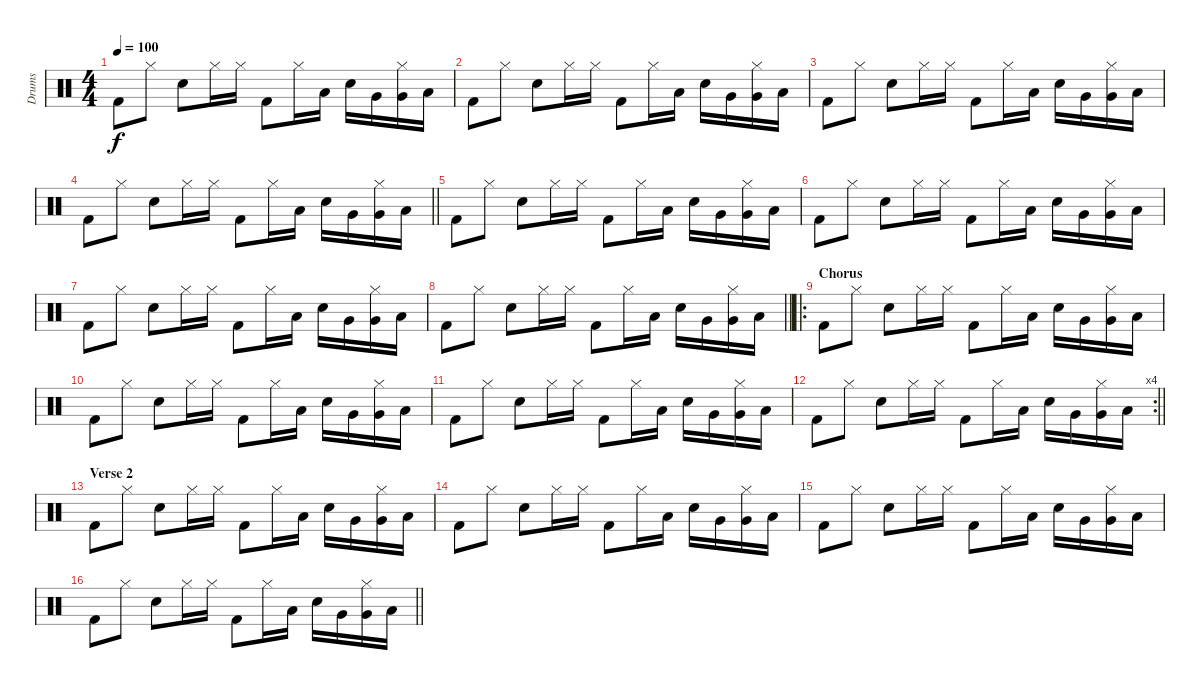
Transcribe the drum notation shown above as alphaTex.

\track ("Drums" "Drums") {instrument percussion}
\staff {score}
\articulation defaults
\ts (4 4)
\tempo 100
\clef neutral
\ks c "Kick (hit) 2".8{dy f} "Hi-Hat (closed)".8 "Snare (hit) 2".8 "Hi-Hat (closed)".16 "Hi-Hat (closed)".16 "Kick (hit) 2".8 "Hi-Hat (closed)".16 "Low Tom (hit)".16 "Snare (hit) 2".16 "Very Low Tom (hit)".16
("Hi-Hat (closed)" "Very Low Tom (hit)").16 "Low Floor Tom (hit)".16 |
"Kick (hit) 2".8 "Hi-Hat (closed)".8 "Snare (hit) 2".8 "Hi-Hat (closed)".16 "Hi-Hat (closed)".16 "Kick (hit) 2".8 "Hi-Hat (closed)".16 "Low Tom (hit)".16 "Snare (hit) 2".16 "Very Low Tom (hit)".16 ("Hi-Hat (closed)" "Very Low Tom (hit)").16 "Low Floor Tom (hit)".16 |
"Kick (hit) 2".8 "Hi-Hat (closed)".8 "Snare (hit) 2".8 "Hi-Hat (closed)".16 "Hi-Hat (closed)".16 "Kick (hit) 2".8 "Hi-Hat (closed)".16 "Low Tom (hit)".16 "Snare (hit) 2".16 "Very Low Tom (hit)".16 ("Hi-Hat (closed)" "Very Low Tom (hit)").16 "Low Floor Tom (hit)".16 |
\barLineRight lightlight "Kick (hit) 2".8 "Hi-Hat (closed)".8 "Snare (hit) 2".8 "Hi-Hat (closed)".16 "Hi-Hat (closed)".16 "Kick (hit) 2".8 "Hi-Hat (closed)".16 "Low Tom (hit)".16 "Snare (hit) 2".16 "Very Low Tom (hit)".16
("Hi-Hat (closed)" "Very Low Tom (hit)").16 "Low Floor Tom (hit)".16 |
"Kick (hit) 2".8 "Hi-Hat (closed)".8 "Snare (hit) 2".8 "Hi-Hat (closed)".16 "Hi-Hat (closed)".16 "Kick (hit) 2".8 "Hi-Hat (closed)".16 "Low Tom (hit)".16 "Snare (hit) 2".16 "Very Low Tom (hit)".16 ("Hi-Hat (closed)" "Very Low Tom (hit)").16 "Low Floor Tom (hit)".16 |
"Kick (hit) 2".8 "Hi-Hat (closed)".8 "Snare (hit) 2".8 "Hi-Hat (closed)".16 "Hi-Hat (closed)".16 "Kick (hit) 2".8 "Hi-Hat (closed)".16 "Low Tom (hit)".16 "Snare (hit) 2".16 "Very Low Tom (hit)".16 ("Hi-Hat (closed)" "Very Low Tom (hit)").16 "Low Floor Tom (hit)".16 |
"Kick (hit) 2".8 "Hi-Hat (closed)".8 "Snare (hit) 2".8 "Hi-Hat (closed)".16 "Hi-Hat (closed)".16 "Kick (hit) 2".8 "Hi-Hat (closed)".16 "Low Tom (hit)".16 "Snare (hit) 2".16 "Very Low Tom (hit)".16 ("Hi-Hat (closed)" "Very Low Tom (hit)").16 "Low Floor Tom (hit)".16 |
\barLineRight lightlight "Kick (hit) 2".8 "Hi-Hat (closed)".8 "Snare (hit) 2".8 "Hi-Hat (closed)".16 "Hi-Hat (closed)".16 "Kick (hit) 2".8 "Hi-Hat (closed)".16 "Low Tom (hit)".16 "Snare (hit) 2".16 "Very Low Tom (hit)".16
("Hi-Hat (closed)" "Very Low Tom (hit)").16 "Low Floor Tom (hit)".16 |
\ro
\section ("" "Chorus")
"Kick (hit) 2".8 "Hi-Hat (closed)".8 "Snare (hit) 2".8 "Hi-Hat (closed)".16 "Hi-Hat (closed)".16 "Kick (hit) 2".8 "Hi-Hat (closed)".16 "Low Tom (hit)".16 "Snare (hit) 2".16 "Very Low Tom (hit)".16 ("Hi-Hat (closed)" "Very Low Tom (hit)").16 "Low Floor Tom (hit)".16 |
"Kick (hit) 2".8 "Hi-Hat (closed)".8 "Snare (hit) 2".8 "Hi-Hat (closed)".16 "Hi-Hat (closed)".16 "Kick (hit) 2".8 "Hi-Hat (closed)".16 "Low Tom (hit)".16 "Snare (hit) 2".16 "Very Low Tom (hit)".16 ("Hi-Hat (closed)" "Very Low Tom (hit)").16 "Low Floor Tom (hit)".16 |
"Kick (hit) 2".8 "Hi-Hat (closed)".8 "Snare (hit) 2".8 "Hi-Hat (closed)".16 "Hi-Hat (closed)".16 "Kick (hit) 2".8 "Hi-Hat (closed)".16 "Low Tom (hit)".16 "Snare (hit) 2".16 "Very Low Tom (hit)".16 ("Hi-Hat (closed)" "Very Low Tom (hit)").16 "Low Floor Tom (hit)".16 |
\rc 4
\barLineRight lightlight "Kick (hit) 2".8 "Hi-Hat (closed)".8 "Snare (hit) 2".8 "Hi-Hat (closed)".16 "Hi-Hat (closed)".16 "Kick (hit) 2".8 "Hi-Hat (closed)".16 "Low Tom (hit)".16 "Snare (hit) 2".16 "Very Low Tom (hit)".16
("Hi-Hat (closed)" "Very Low Tom (hit)").16 "Low Floor Tom (hit)".16 |
\section ("" "Verse 2")
"Kick (hit) 2".8 "Hi-Hat (closed)".8 "Snare (hit) 2".8 "Hi-Hat (closed)".16 "Hi-Hat (closed)".16 "Kick (hit) 2".8 "Hi-Hat (closed)".16 "Low Tom (hit)".16 "Snare (hit) 2".16 "Very Low Tom (hit)".16 ("Hi-Hat (closed)" "Very Low Tom (hit)").16 "Low Floor Tom (hit)".16 |
"Kick (hit) 2".8 "Hi-Hat (closed)".8 "Snare (hit) 2".8 "Hi-Hat (closed)".16 "Hi-Hat (closed)".16 "Kick (hit) 2".8 "Hi-Hat (closed)".16 "Low Tom (hit)".16 "Snare (hit) 2".16 "Very Low Tom (hit)".16 ("Hi-Hat (closed)" "Very Low Tom (hit)").16 "Low Floor Tom (hit)".16 |
"Kick (hit) 2".8 "Hi-Hat (closed)".8 "Snare (hit) 2".8 "Hi-Hat (closed)".16 "Hi-Hat (closed)".16 "Kick (hit) 2".8 "Hi-Hat (closed)".16 "Low Tom (hit)".16 "Snare (hit) 2".16 "Very Low Tom (hit)".16 ("Hi-Hat (closed)" "Very Low Tom (hit)").16 "Low Floor Tom (hit)".16 |
\barLineRight lightlight "Kick (hit) 2".8 "Hi-Hat (closed)".8 "Snare (hit) 2".8 "Hi-Hat (closed)".16 "Hi-Hat (closed)".16 "Kick (hit) 2".8 "Hi-Hat (closed)".16 "Low Tom (hit)".16 "Snare (hit) 2".16 "Very Low Tom (hit)".16
("Hi-Hat (closed)" "Very Low Tom (hit)").16 "Low Floor Tom (hit)".16
